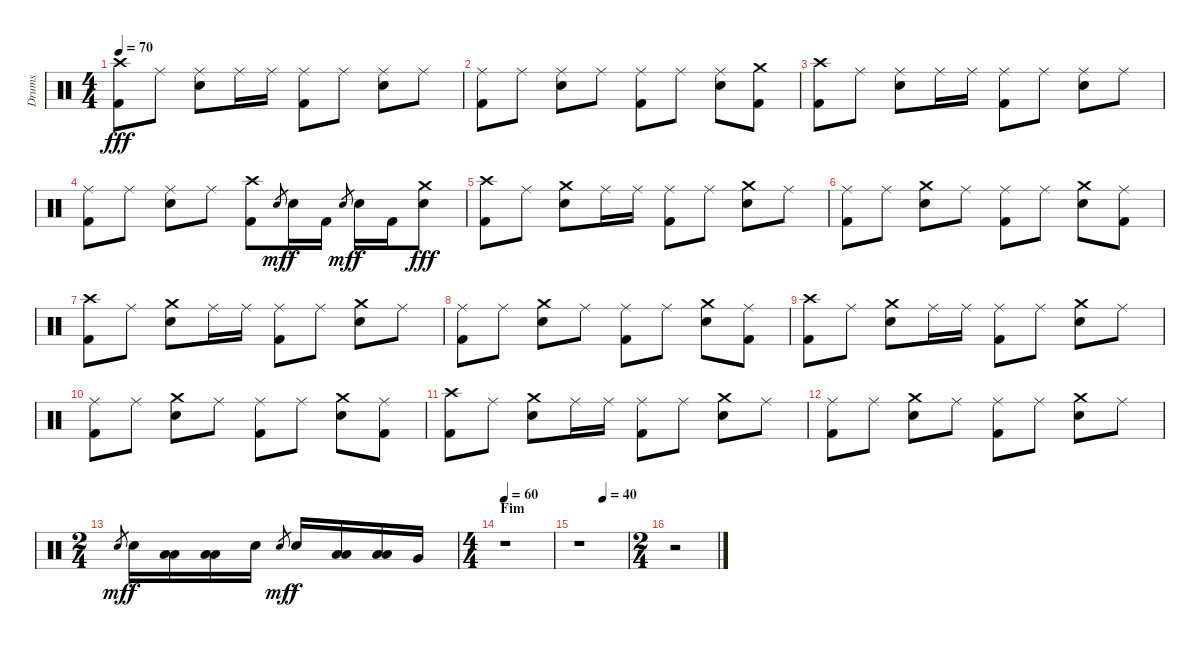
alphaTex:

\track ("Drums" "Drums") {instrument percussion}
\staff {score}
\articulation defaults
\ts (4 4)
\tempo 70
\clef neutral
\ks c
("Kick (hit) 2" "Crash high (hit)").8{dy fff} "Ride (middle)".8 ("Electric Snare (hit)" "Ride (middle)").8 "Ride (middle)".16 "Ride (middle)".16 ("Kick (hit) 2" "Ride (middle)").8 "Ride (middle)".8 ("Electric Snare (hit)" "Ride (middle)").8 "Ride (middle)".8 |
("Kick (hit) 2" "Ride (middle)").8 "Ride (middle)".8 ("Electric Snare (hit)" "Ride (middle)").8 "Ride (middle)".8 ("Kick (hit) 2" "Ride (middle)").8 "Ride (middle)".8 ("Electric Snare (hit)" "Ride (middle)").8 ("Kick (hit) 2" "Crash medium (hit)").8 |
("Kick (hit) 2" "Crash high (hit)").8 "Ride (middle)".8 ("Electric Snare (hit)" "Ride (middle)").8 "Ride (middle)".16 "Ride (middle)".16 ("Kick (hit) 2" "Ride (middle)").8 "Ride (middle)".8 ("Electric Snare (hit)" "Ride (middle)").8 "Ride (middle)".8 |
("Kick (hit) 2" "Ride (middle)").8 "Ride (middle)".8 ("Electric Snare (hit)" "Ride (middle)").8 "Ride (middle)".8 ("Kick (hit) 2" "Crash high (hit)").8 "Electric Snare (hit)".8{gr dy mf} "Electric Snare (hit)".16{dy f} "Kick (hit) 2".16 "Electric Snare (hit)".8{gr dy mf} "Electric Snare (hit)".16{dy f} "Kick (hit) 2".16 ("Electric Snare (hit)" "Crash medium (hit)").8{dy fff} |
("Kick (hit) 2" "Crash high (hit)").8 "Ride (middle)".8 ("Electric Snare (hit)" "Crash medium (hit)").8 "Ride (middle)".16 "Ride (middle)".16 ("Kick (hit) 2" "Ride (middle)").8 "Ride (middle)".8 ("Electric Snare (hit)" "Crash medium (hit)").8 "Ride (middle)".8 |
("Kick (hit) 2" "Ride (middle)").8 "Ride (middle)".8 ("Electric Snare (hit)" "Crash medium (hit)").8 "Ride (middle)".8 ("Kick (hit) 2" "Ride (middle)").8 "Ride (middle)".8 ("Electric Snare (hit)" "Crash medium (hit)").8 ("Kick (hit) 2" "Ride (middle)").8 |
("Kick (hit) 2" "Crash high (hit)").8 "Ride (middle)".8 ("Electric Snare (hit)" "Crash medium (hit)").8 "Ride (middle)".16 "Ride (middle)".16 ("Kick (hit) 2" "Ride (middle)").8 "Ride (middle)".8 ("Electric Snare (hit)" "Crash medium (hit)").8 "Ride (middle)".8 |
("Kick (hit) 2" "Ride (middle)").8 "Ride (middle)".8 ("Electric Snare (hit)" "Crash medium (hit)").8 "Ride (middle)".8 ("Kick (hit) 2" "Ride (middle)").8 "Ride (middle)".8 ("Electric Snare (hit)" "Crash medium (hit)").8 ("Kick (hit) 2" "Ride (middle)").8 |
("Kick (hit) 2" "Crash high (hit)").8 "Ride (middle)".8 ("Electric Snare (hit)" "Crash medium (hit)").8 "Ride (middle)".16 "Ride (middle)".16 ("Kick (hit) 2" "Ride (middle)").8 "Ride (middle)".8 ("Electric Snare (hit)" "Crash medium (hit)").8 "Ride (middle)".8 |
("Kick (hit) 2" "Ride (middle)").8 "Ride (middle)".8 ("Electric Snare (hit)" "Crash medium (hit)").8 "Ride (middle)".8 ("Kick (hit) 2" "Ride (middle)").8 "Ride (middle)".8 ("Electric Snare (hit)" "Crash medium (hit)").8 ("Kick (hit) 2" "Ride (middle)").8 |
("Kick (hit) 2" "Crash high (hit)").8 "Ride (middle)".8 ("Electric Snare (hit)" "Crash medium (hit)").8 "Ride (middle)".16 "Ride (middle)".16 ("Kick (hit) 2" "Ride (middle)").8 "Ride (middle)".8 ("Electric Snare (hit)" "Crash medium (hit)").8 "Ride (middle)".8 |
("Kick (hit) 2" "Ride (middle)").8 "Ride (middle)".8 ("Electric Snare (hit)" "Crash medium (hit)").8 "Ride (middle)".8 ("Kick (hit) 2" "Ride (middle)").8 "Ride (middle)".8 ("Electric Snare (hit)" "Crash medium (hit)").8 "Ride (middle)".8 |
\ts (2 4)
"Electric Snare (hit)".8{gr dy mf} "Electric Snare (hit)".16{dy f} ("Low Tom (hit)" "Low Tom (hit)").16 ("Low Tom (hit)" "Low Tom (hit)").16 "Electric Snare (hit)".16 "Electric Snare (hit)".8{gr dy mf} "Electric Snare (hit)".16{dy f} ("Low Tom (hit)" "Low Tom (hit)").16 ("Low Tom (hit)" "Low Tom (hit)").16 "Very Low Tom (hit)".16 |
\ts (4 4)
\section ("" "Fim")
\tempo 60
r.1 |
\tempo (40 0.5)
r.1 |
\ts (2 4)
r.2
